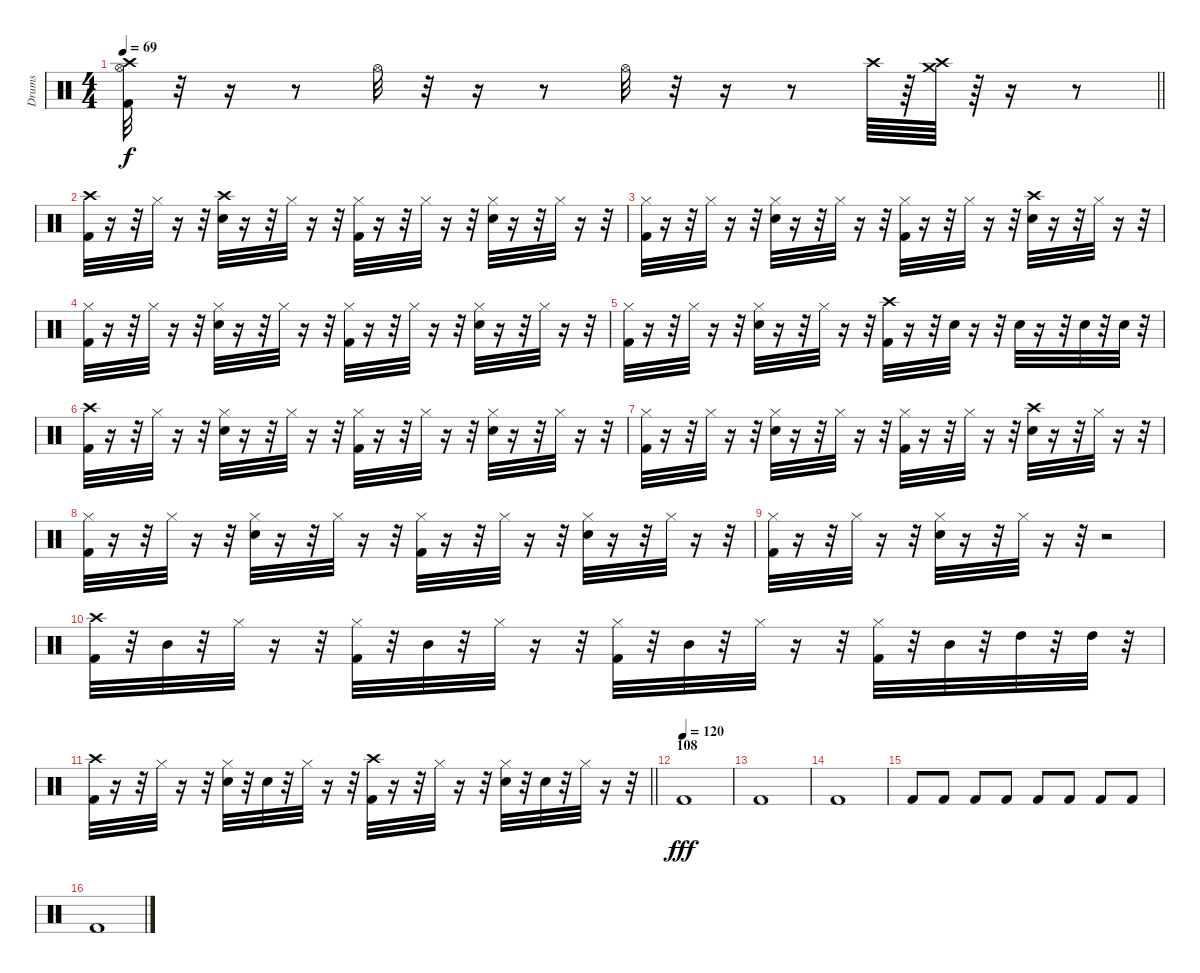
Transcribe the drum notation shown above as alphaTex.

\track ("Drums" "Drums") {instrument percussion}
\staff {score}
\articulation defaults
\ts (4 4)
\tempo 69
\clef neutral
\barLineRight lightlight
\ks c
("Kick (hit) 2" "Crash high (hit)" "Hi-Hat (open)").32{dy f} r.32 r.16 r.8 "Hi-Hat (open)".32 r.32 r.16 r.8 "Hi-Hat (open)".32 r.32 r.16 r.8 "Crash high (hit)".64 r.64 ("Crash high (hit)" "Crash medium (hit)").64 r.64 r.16 r.8 |
("Kick (hit) 2" "Crash high (hit)").32 r.16 r.32 "Hi-Hat (closed)".32 r.16 r.32 ("Crash high (hit)" "Snare (hit) 2").32 r.16 r.32 "Hi-Hat (closed)".32 r.16 r.32 ("Hi-Hat (closed)" "Kick (hit) 2").32 r.16 r.32 "Hi-Hat (closed)".32 r.16 r.32 ("Snare (hit) 2" "Hi-Hat (closed)").32 r.16 r.32 "Hi-Hat (closed)".32 r.16 r.32 |
("Kick (hit) 2" "Hi-Hat (closed)").32 r.16 r.32 "Hi-Hat (closed)".32 r.16 r.32 ("Snare (hit) 2" "Hi-Hat (closed)").32 r.16 r.32 "Hi-Hat (closed)".32 r.16 r.32 ("Hi-Hat (closed)" "Kick (hit) 2").32 r.16 r.32 "Hi-Hat (closed)".32 r.16 r.32 ("Crash high (hit)" "Snare (hit) 2").32 r.16 r.32 "Hi-Hat (closed)".32 r.16 r.32 |
("Hi-Hat (closed)" "Kick (hit) 2").32 r.16 r.32 "Hi-Hat (closed)".32 r.16 r.32 ("Snare (hit) 2" "Hi-Hat (closed)").32 r.16 r.32 "Hi-Hat (closed)".32 r.16 r.32 ("Hi-Hat (closed)" "Kick (hit) 2").32 r.16 r.32 "Hi-Hat (closed)".32 r.16 r.32 ("Snare (hit) 2" "Hi-Hat (closed)").32 r.16 r.32 "Hi-Hat (closed)".32 r.16 r.32 |
("Kick (hit) 2" "Hi-Hat (closed)").32 r.16 r.32 "Hi-Hat (closed)".32 r.16 r.32 ("Snare (hit) 2" "Hi-Hat (closed)").32 r.16 r.32 "Hi-Hat (closed)".32 r.16 r.32 ("Crash high (hit)" "Kick (hit) 2").32 r.16 r.32 "Snare (hit) 2".32 r.16 r.32 "Snare (hit) 2".32 r.16 r.32 "Snare (hit) 2".32 r.32 "Snare (hit) 2".32 r.32 |
("Kick (hit) 2" "Crash high (hit)").32 r.16 r.32 "Hi-Hat (closed)".32 r.16 r.32 ("Snare (hit) 2" "Hi-Hat (closed)").32 r.16 r.32 "Hi-Hat (closed)".32 r.16 r.32 ("Hi-Hat (closed)" "Kick (hit) 2").32 r.16 r.32 "Hi-Hat (closed)".32 r.16 r.32 ("Snare (hit) 2" "Hi-Hat (closed)").32 r.16 r.32 "Hi-Hat (closed)".32 r.16 r.32 |
("Kick (hit) 2" "Hi-Hat (closed)").32 r.16 r.32 "Hi-Hat (closed)".32 r.16 r.32 ("Snare (hit) 2" "Hi-Hat (closed)").32 r.16 r.32 "Hi-Hat (closed)".32 r.16 r.32 ("Hi-Hat (closed)" "Kick (hit) 2").32 r.16 r.32 "Hi-Hat (closed)".32 r.16 r.32 ("Crash high (hit)" "Snare (hit) 2").32 r.16 r.32 "Hi-Hat (closed)".32 r.16 r.32 |
("Kick (hit) 2" "Hi-Hat (closed)").32 r.16 r.32 "Hi-Hat (closed)".32 r.16 r.32 ("Snare (hit) 2" "Hi-Hat (closed)").32 r.16 r.32 "Hi-Hat (closed)".32 r.16 r.32 ("Kick (hit) 2" "Hi-Hat (closed)").32 r.16 r.32 "Hi-Hat (closed)".32 r.16 r.32 ("Snare (hit) 2" "Hi-Hat (closed)").32 r.16 r.32 "Hi-Hat (closed)".32 r.16 r.32 |
("Kick (hit) 2" "Hi-Hat (closed)").32 r.16 r.32 "Hi-Hat (closed)".32 r.16 r.32 ("Snare (hit) 2" "Hi-Hat (closed)").32 r.16 r.32 "Hi-Hat (closed)".32 r.16 r.32 r.2 |
("Kick (hit) 2" "Crash high (hit)").32 r.32 "Mid Tom (hit)".32 r.32 "Hi-Hat (closed)".32 r.16 r.32 ("Hi-Hat (closed)" "Kick (hit) 2").32 r.32 "Mid Tom (hit)".32 r.32 "Hi-Hat (closed)".32 r.16 r.32 ("Hi-Hat (closed)" "Kick (hit) 2").32 r.32 "Mid Tom (hit)".32 r.32 "Hi-Hat (closed)".32 r.16 r.32 ("Hi-Hat (closed)" "Kick (hit) 2").32 r.32 "Mid Tom (hit)".32 r.32 "High Tom (hit)".32 r.32 "High Tom (hit)".32 r.32 |
\barLineRight lightlight
("Kick (hit) 2" "Crash high (hit)").32 r.16 r.32 "Hi-Hat (closed)".32 r.16 r.32 ("Snare (hit) 2" "Hi-Hat (closed)").32 r.32 "Snare (hit) 2".32 r.32 "Hi-Hat (closed)".32 r.16 r.32 ("Crash high (hit)" "Kick (hit) 2").32 r.16 r.32 "Hi-Hat (closed)".32 r.16 r.32 ("Snare (hit) 2" "Hi-Hat (closed)").32 r.32 "Snare (hit) 2".32 r.32 "Hi-Hat (closed)".32 r.16 r.32 |
\section ("" "108")
\tempo (120)
"Kick (hit) 2".1{dy fff} |
"Kick (hit) 2".1 |
"Kick (hit) 2".1 |
"Kick (hit) 2".8{volume 16} "Kick (hit) 2".8 "Kick (hit) 2".8 "Kick (hit) 2".8 "Kick (hit) 2".8 "Kick (hit) 2".8 "Kick (hit) 2".8 "Kick (hit) 2".8 |
"Kick (hit) 2".1
